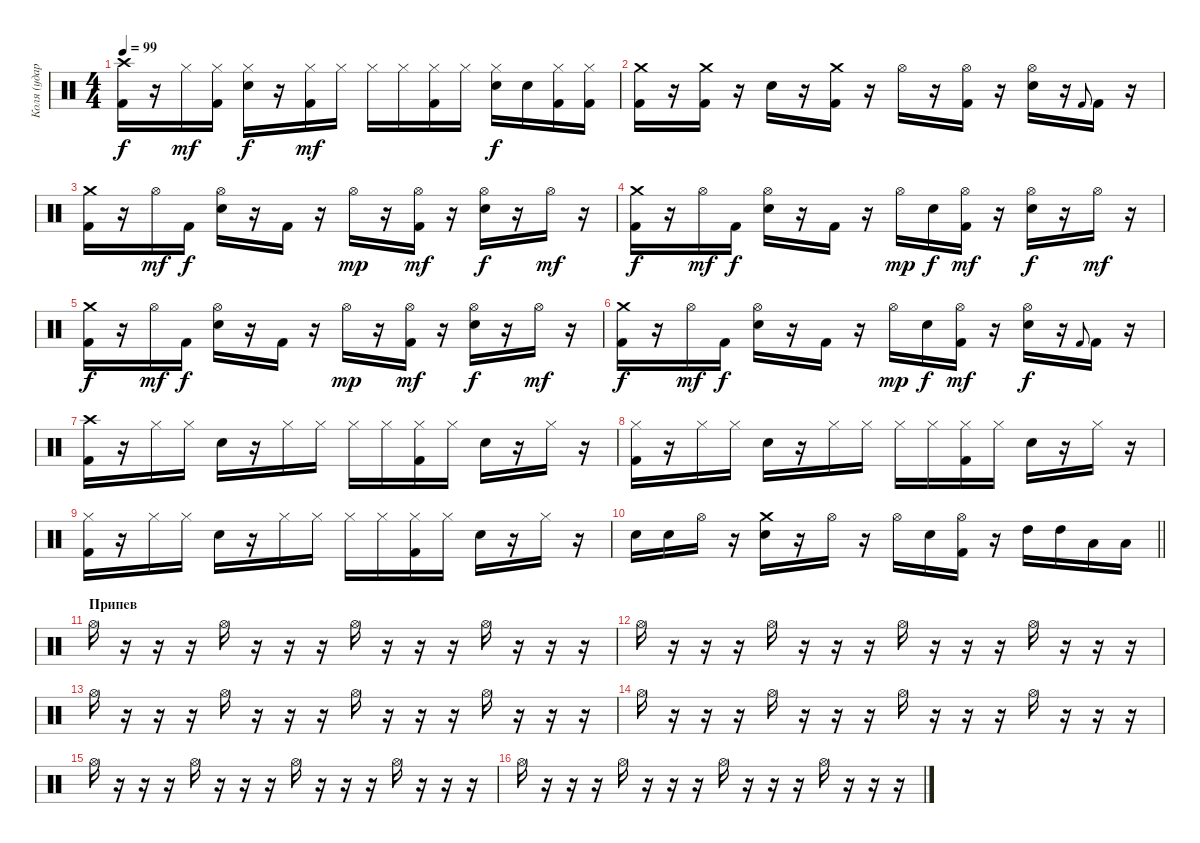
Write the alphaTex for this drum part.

\track ("Коля (ударные)" "Коля (удар") {instrument percussion}
\staff {score}
\articulation defaults
\ts (4 4)
\tempo 99
\clef neutral
\ks c
("Crash high (hit)" "Kick (hit) 2").16{dy f} r.16 "Hi-Hat (closed)".16{dy mf} ("Kick (hit) 2" "Hi-Hat (closed)").16 ("Electric Snare (hit)" "Hi-Hat (closed)").16{dy f} r.16 ("Kick (hit) 2" "Hi-Hat (closed)").16{dy mf} "Hi-Hat (closed)".16 "Hi-Hat (closed)".16 "Hi-Hat (closed)".16 ("Kick (hit) 2" "Hi-Hat (closed)").16 "Hi-Hat (closed)".16 ("Electric Snare (hit)" "Hi-Hat (closed)").16{dy f} "Electric Snare (hit)".16 ("Kick (hit) 2" "Hi-Hat (closed)").16 ("Kick (hit) 2" "Hi-Hat (closed)").16 |
("Crash medium (hit)" "Kick (hit) 2").16 r.16 ("Crash medium (hit)" "Kick (hit) 2").16 r.16 "Electric Snare (hit)".16 r.16 ("Crash medium (hit)" "Kick (hit) 2").16 r.16 "Hi-Hat (open)".16 r.16 ("Kick (hit) 2" "Hi-Hat (open)").16 r.16 ("Electric Snare (hit)" "Hi-Hat (open)").16 r.16 "Kick (hit) 2".8{gr onbeat} "Kick (hit) 2".16 r.16 |
("Crash medium (hit)" "Kick (hit) 2").16 r.16 "Hi-Hat (open)".16{dy mf} "Kick (hit) 2".16{dy f} ("Electric Snare (hit)" "Hi-Hat (open)").16 r.16 "Kick (hit) 2".16 r.16 "Hi-Hat (open)".16{dy mp} r.16 ("Kick (hit) 2" "Hi-Hat (open)").16{dy mf} r.16 ("Electric Snare (hit)" "Hi-Hat (open)").16{dy f} r.16 "Hi-Hat (open)".16{dy mf} r.16 |
("Crash medium (hit)" "Kick (hit) 2").16{dy f} r.16 "Hi-Hat (open)".16{dy mf} "Kick (hit) 2".16{dy f} ("Electric Snare (hit)" "Hi-Hat (open)").16 r.16 "Kick (hit) 2".16 r.16 "Hi-Hat (open)".16{dy mp} "Electric Snare (hit)".16{dy f} ("Kick (hit) 2" "Hi-Hat (open)").16{dy mf} r.16 ("Electric Snare (hit)" "Hi-Hat (open)").16{dy f} r.16 "Hi-Hat (open)".16{dy mf} r.16 |
("Crash medium (hit)" "Kick (hit) 2").16{dy f} r.16 "Hi-Hat (open)".16{dy mf} "Kick (hit) 2".16{dy f} ("Electric Snare (hit)" "Hi-Hat (open)").16 r.16 "Kick (hit) 2".16 r.16 "Hi-Hat (open)".16{dy mp} r.16 ("Kick (hit) 2" "Hi-Hat (open)").16{dy mf} r.16 ("Electric Snare (hit)" "Hi-Hat (open)").16{dy f} r.16 "Hi-Hat (open)".16{dy mf} r.16 |
("Crash medium (hit)" "Kick (hit) 2").16{dy f} r.16 "Hi-Hat (open)".16{dy mf} "Kick (hit) 2".16{dy f} ("Electric Snare (hit)" "Hi-Hat (open)").16 r.16 "Kick (hit) 2".16 r.16 "Hi-Hat (open)".16{dy mp} "Electric Snare (hit)".16{dy f} ("Kick (hit) 2" "Hi-Hat (open)").16{dy mf} r.16 ("Electric Snare (hit)" "Hi-Hat (open)").16{dy f} r.16 "Kick (hit) 2".8{gr onbeat} "Kick (hit) 2".16 r.16 |
("Kick (hit) 2" "Crash high (hit)").16 r.16 "Hi-Hat (closed)".16 "Hi-Hat (closed)".16 "Electric Snare (hit)".16 r.16 "Hi-Hat (closed)".16 "Hi-Hat (closed)".16 "Hi-Hat (closed)".16 "Hi-Hat (closed)".16 ("Kick (hit) 2" "Hi-Hat (closed)").16 "Hi-Hat (closed)".16 "Electric Snare (hit)".16 r.16 "Hi-Hat (closed)".16 r.16 |
("Kick (hit) 2" "Hi-Hat (closed)").16 r.16 "Hi-Hat (closed)".16 "Hi-Hat (closed)".16 "Electric Snare (hit)".16 r.16 "Hi-Hat (closed)".16 "Hi-Hat (closed)".16 "Hi-Hat (closed)".16 "Hi-Hat (closed)".16 ("Kick (hit) 2" "Hi-Hat (closed)").16 "Hi-Hat (closed)".16 "Electric Snare (hit)".16 r.16 "Hi-Hat (closed)".16 r.16 |
("Kick (hit) 2" "Hi-Hat (closed)").16 r.16 "Hi-Hat (closed)".16 "Hi-Hat (closed)".16 "Electric Snare (hit)".16 r.16 "Hi-Hat (closed)".16 "Hi-Hat (closed)".16 "Hi-Hat (closed)".16 "Hi-Hat (closed)".16 ("Kick (hit) 2" "Hi-Hat (closed)").16 "Hi-Hat (closed)".16 "Electric Snare (hit)".16 r.16 "Hi-Hat (closed)".16 r.16 |
\barLineRight lightlight "Electric Snare (hit)".16 "Electric Snare (hit)".16 "Hi-Hat (open)".16
r.16 ("Electric Snare (hit)" "Crash medium (hit)").16 r.16 "Hi-Hat (open)".16 r.16 "Hi-Hat (open)".16 "Electric Snare (hit)".16 ("Kick (hit) 2" "Hi-Hat (open)").16 r.16 "High Tom (hit)".16 "High Tom (hit)".16 "Low Tom (hit)".16 "Low Tom (hit)".16 |
\section ("" "Припев")
"Hi-Hat (open)".16 r.16 r.16 r.16 "Hi-Hat (open)".16 r.16 r.16 r.16 "Hi-Hat (open)".16 r.16 r.16 r.16 "Hi-Hat (open)".16 r.16 r.16 r.16 |
"Hi-Hat (open)".16 r.16 r.16 r.16 "Hi-Hat (open)".16 r.16 r.16 r.16 "Hi-Hat (open)".16 r.16 r.16 r.16 "Hi-Hat (open)".16 r.16 r.16 r.16 |
"Hi-Hat (open)".16 r.16 r.16 r.16 "Hi-Hat (open)".16 r.16 r.16 r.16 "Hi-Hat (open)".16 r.16 r.16 r.16 "Hi-Hat (open)".16 r.16 r.16 r.16 |
"Hi-Hat (open)".16 r.16 r.16 r.16 "Hi-Hat (open)".16 r.16 r.16 r.16 "Hi-Hat (open)".16 r.16 r.16 r.16 "Hi-Hat (open)".16 r.16 r.16 r.16 |
"Hi-Hat (open)".16 r.16 r.16 r.16 "Hi-Hat (open)".16 r.16 r.16 r.16 "Hi-Hat (open)".16 r.16 r.16 r.16 "Hi-Hat (open)".16 r.16 r.16 r.16 |
"Hi-Hat (open)".16 r.16 r.16 r.16 "Hi-Hat (open)".16 r.16 r.16 r.16 "Hi-Hat (open)".16 r.16 r.16 r.16 "Hi-Hat (open)".16 r.16 r.16 r.16
